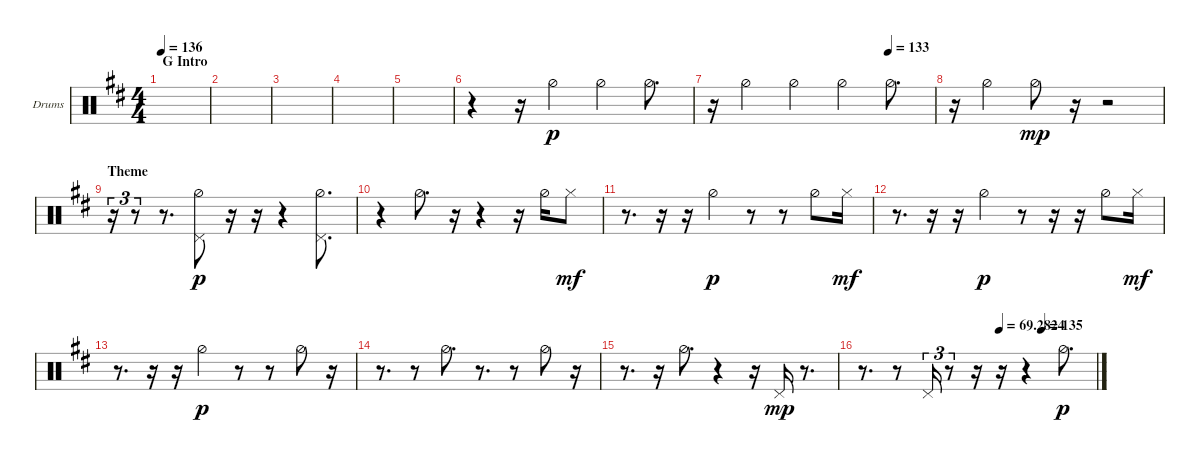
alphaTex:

\bracketExtendMode groupsimilarinstruments
\firstSystemTrackNameOrientation horizontal
\otherSystemsTrackNameOrientation horizontal
\track ("HH" "Drums") {instrument percussion}
\staff {score}
\articulation defaults
\ts (4 4)
\section ("" "G Intro")
\tempo 136
\clef neutral
\ks d
|
|
|
|
|
r.4 r.16 "Hi-Hat (half)".4{dy p} "Hi-Hat (half)".4 "Hi-Hat (half)".8{d} |
\tempo (133 0.79375)
r.16 "Hi-Hat (half)".4 "Hi-Hat (half)".4 "Hi-Hat (half)".4 "Hi-Hat (half)".8{d} |
r.16 "Hi-Hat (half)".4 "Hi-Hat (half)".8{dy mp} r.16 r.2 |
\section ("" "Theme")
r.16{tu (3 2)} r.8{tu (3 2)} r.8{d} ("Pedal Hi-Hat (hit)" "Hi-Hat (half)").8{dy p} r.16 r.16 r.4 ("Pedal Hi-Hat (hit)" "Hi-Hat (half)").8{d} |
r.4 "Hi-Hat (half)".8{d} r.16 r.4 r.16 "Hi-Hat (half)".16 "Hi-Hat (closed)".8{dy mf} |
r.8{d} r.16 r.16 "Hi-Hat (half)".4{dy p} r.8 r.8 "Hi-Hat (half)".8 "Hi-Hat (closed)".16{dy mf} |
r.8{d} r.16 r.16 "Hi-Hat (half)".4{dy p} r.8 r.16 r.16 "Hi-Hat (half)".8 "Hi-Hat (closed)".16{dy mf} |
r.8{d} r.16 r.16 "Hi-Hat (half)".4{dy p} r.8 r.8 "Hi-Hat (half)".8 r.16 |
r.8{d} r.8 "Hi-Hat (half)".8{d} r.8{d} r.8 "Hi-Hat (half)".8 r.16 |
r.8{d} r.16 "Hi-Hat (half)".8{d} r.4 r.16 "Pedal Hi-Hat (hit)".16{dy mp} r.8{d} |
\tempo (69.2824 0.5875)
\tempo (135 0.76875)
r.8{d} r.8 "Pedal Hi-Hat (hit)".16{tu (3 2)} r.8{tu (3 2)} r.16 r.16 r.4 "Hi-Hat (half)".8{d dy p}
